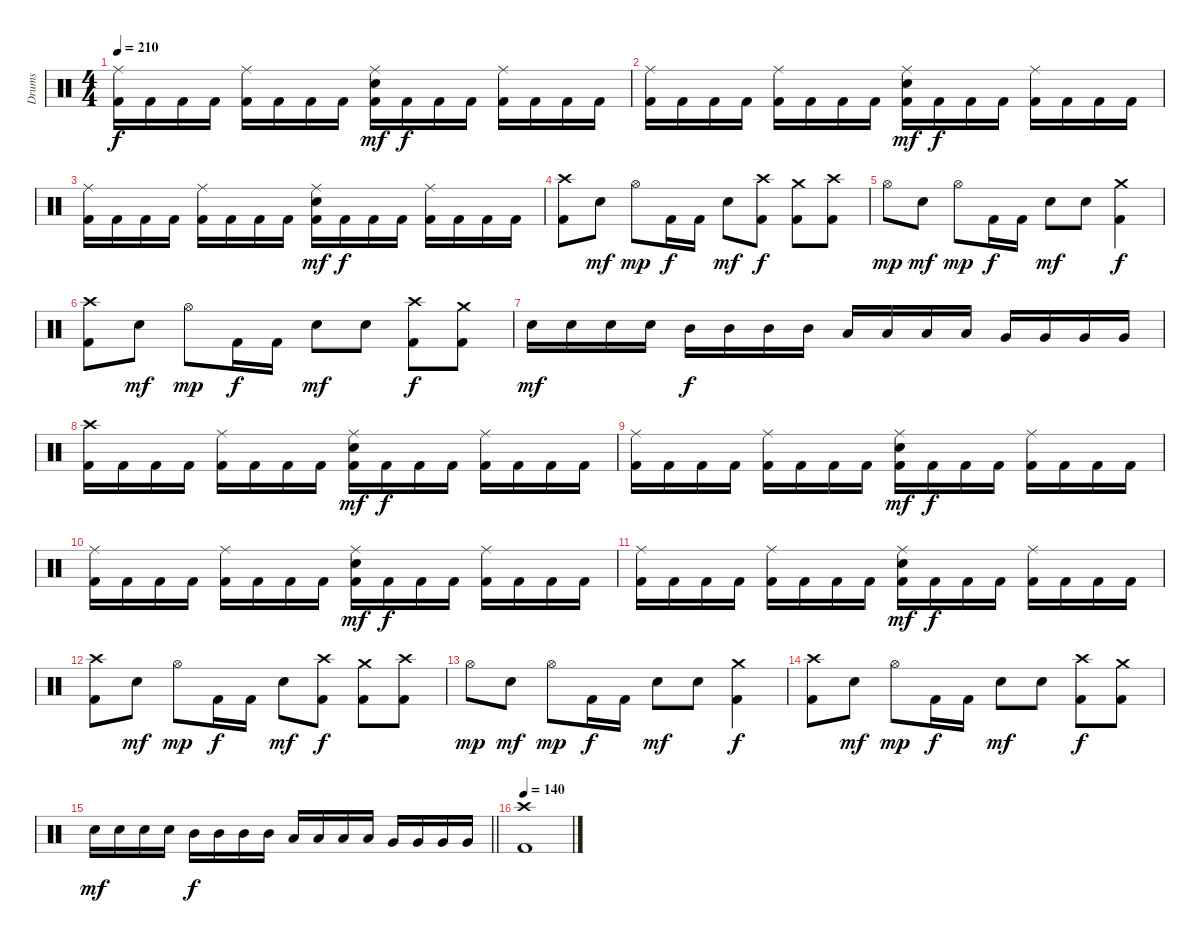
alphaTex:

\track ("Drums" "Drums") {instrument percussion}
\staff {score}
\articulation defaults
\ts (4 4)
\tempo 210
\clef neutral
\ks c
("Ride (middle)" "Kick (hit) 2").16{dy f} "Kick (hit) 2".16 "Kick (hit) 2".16 "Kick (hit) 2".16 ("Ride (middle)" "Kick (hit) 2").16 "Kick (hit) 2".16 "Kick (hit) 2".16 "Kick (hit) 2".16 ("Ride (middle)" "Electric Snare (hit)" "Kick (hit) 2").16{dy mf} "Kick (hit) 2".16{dy f} "Kick (hit) 2".16 "Kick (hit) 2".16 ("Ride (middle)" "Kick (hit) 2").16 "Kick (hit) 2".16 "Kick (hit) 2".16 "Kick (hit) 2".16 |
("Ride (middle)" "Kick (hit) 2").16 "Kick (hit) 2".16 "Kick (hit) 2".16 "Kick (hit) 2".16 ("Ride (middle)" "Kick (hit) 2").16 "Kick (hit) 2".16 "Kick (hit) 2".16 "Kick (hit) 2".16 ("Ride (middle)" "Electric Snare (hit)" "Kick (hit) 2").16{dy mf} "Kick (hit) 2".16{dy f} "Kick (hit) 2".16 "Kick (hit) 2".16 ("Ride (middle)" "Kick (hit) 2").16 "Kick (hit) 2".16 "Kick (hit) 2".16 "Kick (hit) 2".16 |
("Ride (middle)" "Kick (hit) 2").16 "Kick (hit) 2".16 "Kick (hit) 2".16 "Kick (hit) 2".16 ("Ride (middle)" "Kick (hit) 2").16 "Kick (hit) 2".16 "Kick (hit) 2".16 "Kick (hit) 2".16 ("Ride (middle)" "Electric Snare (hit)" "Kick (hit) 2").16{dy mf} "Kick (hit) 2".16{dy f} "Kick (hit) 2".16 "Kick (hit) 2".16 ("Ride (middle)" "Kick (hit) 2").16 "Kick (hit) 2".16 "Kick (hit) 2".16 "Kick (hit) 2".16 |
("Crash high (hit)" "Kick (hit) 2").8 "Electric Snare (hit)".8{dy mf} "Hi-Hat (open)".8{dy mp} "Kick (hit) 2".16{dy f} "Kick (hit) 2".16 "Electric Snare (hit)".8{dy mf} ("Crash high (hit)" "Kick (hit) 2").8{dy f} ("Crash medium (hit)" "Kick (hit) 2").8 ("Crash high (hit)" "Kick (hit) 2").8 |
"Hi-Hat (open)".8{dy mp} "Electric Snare (hit)".8{dy mf} "Hi-Hat (open)".8{dy mp} "Kick (hit) 2".16{dy f} "Kick (hit) 2".16 "Electric Snare (hit)".8{dy mf} "Electric Snare (hit)".8 ("Crash medium (hit)" "Kick (hit) 2").4{dy f} |
("Crash high (hit)" "Kick (hit) 2").8 "Electric Snare (hit)".8{dy mf} "Hi-Hat (open)".8{dy mp} "Kick (hit) 2".16{dy f} "Kick (hit) 2".16 "Electric Snare (hit)".8{dy mf} "Electric Snare (hit)".8 ("Crash high (hit)" "Kick (hit) 2").8{dy f} ("Crash medium (hit)" "Kick (hit) 2").8 |
"Electric Snare (hit)".16{dy mf} "Electric Snare (hit)".16 "Electric Snare (hit)".16 "Electric Snare (hit)".16 "Mid Tom (hit)".16{dy f} "Mid Tom (hit)".16 "Mid Tom (hit)".16 "Mid Tom (hit)".16 "Low Tom (hit)".16 "Low Tom (hit)".16 "Low Tom (hit)".16 "Low Tom (hit)".16 "Very Low Tom (hit)".16 "Very Low Tom (hit)".16 "Very Low Tom (hit)".16 "Very Low Tom (hit)".16 |
("Crash high (hit)" "Kick (hit) 2").16 "Kick (hit) 2".16 "Kick (hit) 2".16 "Kick (hit) 2".16 ("Ride (middle)" "Kick (hit) 2").16 "Kick (hit) 2".16 "Kick (hit) 2".16 "Kick (hit) 2".16 ("Ride (middle)" "Electric Snare (hit)" "Kick (hit) 2").16{dy mf} "Kick (hit) 2".16{dy f} "Kick (hit) 2".16 "Kick (hit) 2".16 ("Ride (middle)" "Kick (hit) 2").16 "Kick (hit) 2".16 "Kick (hit) 2".16 "Kick (hit) 2".16 |
("Ride (middle)" "Kick (hit) 2").16 "Kick (hit) 2".16 "Kick (hit) 2".16 "Kick (hit) 2".16 ("Ride (middle)" "Kick (hit) 2").16 "Kick (hit) 2".16 "Kick (hit) 2".16 "Kick (hit) 2".16 ("Ride (middle)" "Electric Snare (hit)" "Kick (hit) 2").16{dy mf} "Kick (hit) 2".16{dy f} "Kick (hit) 2".16 "Kick (hit) 2".16 ("Ride (middle)" "Kick (hit) 2").16 "Kick (hit) 2".16 "Kick (hit) 2".16 "Kick (hit) 2".16 |
("Ride (middle)" "Kick (hit) 2").16 "Kick (hit) 2".16 "Kick (hit) 2".16 "Kick (hit) 2".16 ("Ride (middle)" "Kick (hit) 2").16 "Kick (hit) 2".16 "Kick (hit) 2".16 "Kick (hit) 2".16 ("Ride (middle)" "Electric Snare (hit)" "Kick (hit) 2").16{dy mf} "Kick (hit) 2".16{dy f} "Kick (hit) 2".16 "Kick (hit) 2".16 ("Ride (middle)" "Kick (hit) 2").16 "Kick (hit) 2".16 "Kick (hit) 2".16 "Kick (hit) 2".16 |
("Ride (middle)" "Kick (hit) 2").16 "Kick (hit) 2".16 "Kick (hit) 2".16 "Kick (hit) 2".16 ("Ride (middle)" "Kick (hit) 2").16 "Kick (hit) 2".16 "Kick (hit) 2".16 "Kick (hit) 2".16 ("Ride (middle)" "Electric Snare (hit)" "Kick (hit) 2").16{dy mf} "Kick (hit) 2".16{dy f} "Kick (hit) 2".16 "Kick (hit) 2".16 ("Ride (middle)" "Kick (hit) 2").16 "Kick (hit) 2".16 "Kick (hit) 2".16 "Kick (hit) 2".16 |
("Crash high (hit)" "Kick (hit) 2").8 "Electric Snare (hit)".8{dy mf} "Hi-Hat (open)".8{dy mp} "Kick (hit) 2".16{dy f} "Kick (hit) 2".16 "Electric Snare (hit)".8{dy mf} ("Crash high (hit)" "Kick (hit) 2").8{dy f} ("Crash medium (hit)" "Kick (hit) 2").8 ("Crash high (hit)" "Kick (hit) 2").8 |
"Hi-Hat (open)".8{dy mp} "Electric Snare (hit)".8{dy mf} "Hi-Hat (open)".8{dy mp} "Kick (hit) 2".16{dy f} "Kick (hit) 2".16 "Electric Snare (hit)".8{dy mf} "Electric Snare (hit)".8 ("Crash medium (hit)" "Kick (hit) 2").4{dy f} |
("Crash high (hit)" "Kick (hit) 2").8 "Electric Snare (hit)".8{dy mf} "Hi-Hat (open)".8{dy mp} "Kick (hit) 2".16{dy f} "Kick (hit) 2".16 "Electric Snare (hit)".8{dy mf} "Electric Snare (hit)".8 ("Crash high (hit)" "Kick (hit) 2").8{dy f} ("Crash medium (hit)" "Kick (hit) 2").8 |
\barLineRight lightlight "Electric Snare (hit)".16{dy mf} "Electric Snare (hit)".16 "Electric Snare (hit)".16 "Electric Snare (hit)".16 "Mid Tom (hit)".16{dy f} "Mid Tom (hit)".16 "Mid Tom (hit)".16 "Mid Tom (hit)".16 "Low Tom (hit)".16 "Low Tom (hit)".16 "Low Tom (hit)".16 "Low Tom (hit)".16 "Very Low Tom (hit)".16 "Very Low Tom (hit)".16 "Very Low Tom (hit)".16 "Very Low Tom (hit)".16
|
\section ("" "")
\tempo 140
("Crash high (hit)" "Kick (hit) 2").1
